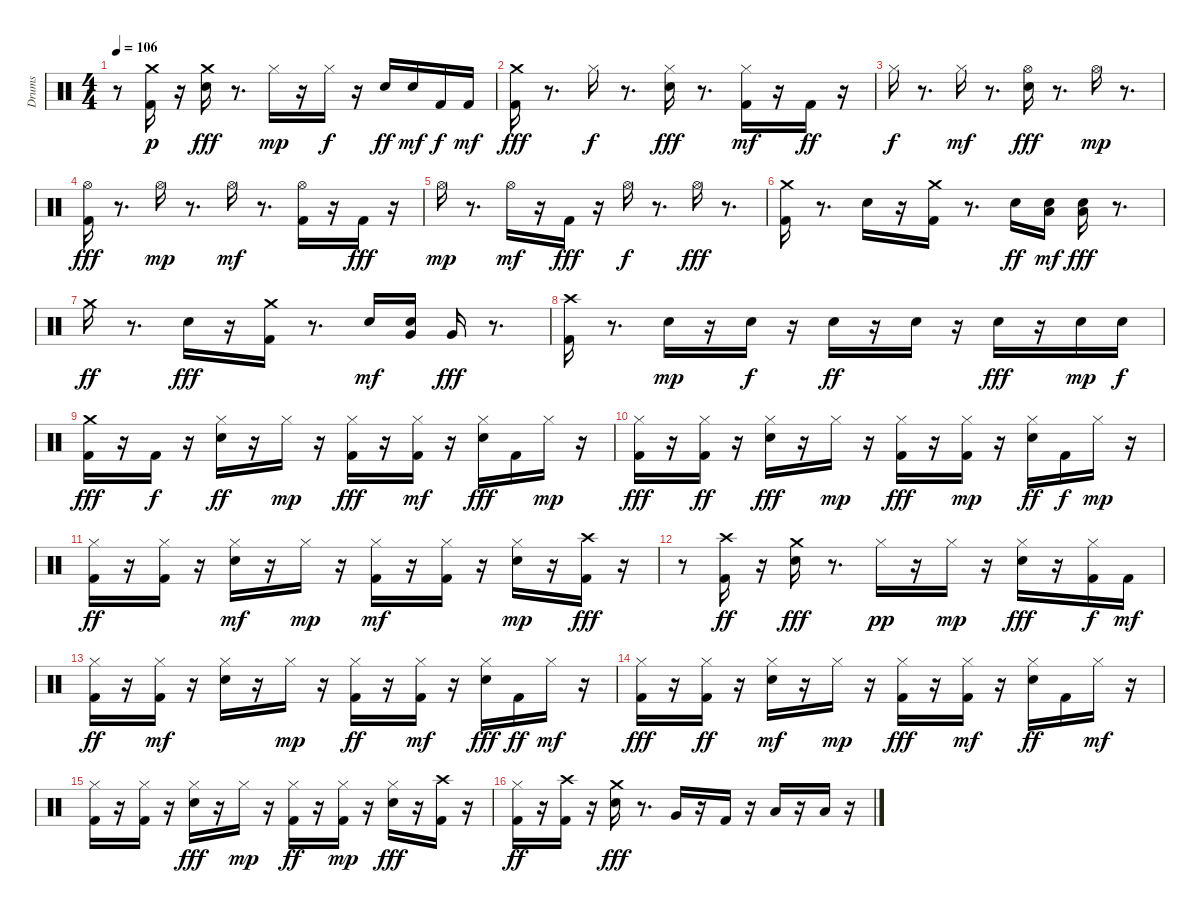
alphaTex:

\track ("Drums" "Drums") {instrument percussion}
\staff {score}
\articulation defaults
\ts (4 4)
\tempo 106
\clef neutral
\ks c
r.8{dy ff} ("Kick (hit) 2" "Crash medium (hit)").16{dy p} r.16 ("Crash medium (hit)" "Snare (hit) 2").16{dy fff} r.8{d} "Hi-Hat (closed)".16{dy mp} r.16 "Hi-Hat (closed)".16{dy f} r.16 "Snare (hit) 2".16{dy ff} "Snare (hit) 2".16{dy mf} "Kick (hit) 2".16{dy f} "Kick (hit) 2".16{dy mf} |
("Crash medium (hit)" "Kick (hit) 2").16{dy fff} r.8{d} "Hi-Hat (closed)".16{dy f} r.8{d} ("Hi-Hat (closed)" "Snare (hit) 2").16{dy fff} r.8{d} ("Hi-Hat (closed)" "Kick (hit) 2").16{dy mf} r.16 "Kick (hit) 2".16{dy ff} r.16 |
"Hi-Hat (closed)".16{dy f} r.8{d} "Hi-Hat (closed)".16{dy mf} r.8{d} ("Hi-Hat (open)" "Snare (hit) 2").16{dy fff} r.8{d} "Hi-Hat (open)".16{dy mp} r.8{d} |
("Hi-Hat (open)" "Kick (hit) 2").16{dy fff} r.8{d} "Hi-Hat (open)".16{dy mp} r.8{d} "Hi-Hat (open)".16{dy mf} r.8{d} ("Hi-Hat (open)" "Kick (hit) 2").16 r.16 "Kick (hit) 2".16{dy fff} r.16 |
"Hi-Hat (open)".16{dy mp} r.8{d} "Hi-Hat (open)".16{dy mf} r.16 "Kick (hit) 2".16{dy fff} r.16 "Hi-Hat (open)".16{dy f} r.8{d} "Hi-Hat (open)".16{dy fff} r.8{d} |
("Crash medium (hit)" "Kick (hit) 2").16 r.8{d} "Snare (hit) 2".16 r.16 ("Crash medium (hit)" "Kick (hit) 2").16 r.8{d} "Snare (hit) 2".16{dy ff} ("Snare (hit) 2" "Low Floor Tom (hit)").16{dy mf} ("Snare (hit) 2" "Low Floor Tom (hit)").16{dy fff} r.8{d} |
"Crash medium (hit)".16{dy ff} r.8{d} "Snare (hit) 2".16{dy fff} r.16 ("Crash medium (hit)" "Kick (hit) 2").16 r.8{d} "Snare (hit) 2".16{dy mf} ("Snare (hit) 2" "Very Low Tom (hit)").16 "Very Low Tom (hit)".16{dy fff} r.8{d} |
("Crash high (hit)" "Kick (hit) 2").16 r.8{d} "Snare (hit) 2".16{dy mp} r.16 "Snare (hit) 2".16{dy f} r.16 "Snare (hit) 2".16{dy ff} r.16 "Snare (hit) 2".16 r.16 "Snare (hit) 2".16{dy fff} r.16 "Snare (hit) 2".16{dy mp} "Snare (hit) 2".16{dy f} |
("Crash medium (hit)" "Kick (hit) 2").16{dy fff} r.16 "Kick (hit) 2".16{dy f} r.16 ("Hi-Hat (closed)" "Snare (hit) 2").16{dy ff} r.16 "Hi-Hat (closed)".16{dy mp} r.16 ("Hi-Hat (closed)" "Kick (hit) 2").16{dy fff} r.16 ("Hi-Hat (closed)" "Kick (hit) 2").16{dy mf} r.16 ("Hi-Hat (closed)" "Snare (hit) 2").16{dy fff} "Kick (hit) 2".16 "Hi-Hat (closed)".16{dy mp} r.16 |
("Hi-Hat (closed)" "Kick (hit) 2").16{dy fff} r.16 ("Hi-Hat (closed)" "Kick (hit) 2").16{dy ff} r.16 ("Hi-Hat (closed)" "Snare (hit) 2").16{dy fff} r.16 "Hi-Hat (closed)".16{dy mp} r.16 ("Hi-Hat (closed)" "Kick (hit) 2").16{dy fff} r.16 ("Kick (hit) 2" "Hi-Hat (closed)").16{dy mp} r.16 ("Hi-Hat (closed)" "Snare (hit) 2").16{dy ff} "Kick (hit) 2".16{dy f} "Hi-Hat (closed)".16{dy mp} r.16 |
("Hi-Hat (closed)" "Kick (hit) 2").16{dy ff} r.16 ("Hi-Hat (closed)" "Kick (hit) 2").16 r.16 ("Snare (hit) 2" "Hi-Hat (closed)").16{dy mf} r.16 "Hi-Hat (closed)".16{dy mp} r.16 ("Kick (hit) 2" "Hi-Hat (closed)").16{dy mf} r.16 ("Kick (hit) 2" "Hi-Hat (closed)").16 r.16 ("Snare (hit) 2" "Hi-Hat (closed)").16{dy mp} r.16 ("Crash high (hit)" "Kick (hit) 2").16{dy fff} r.16 |
r.8 ("Crash high (hit)" "Kick (hit) 2").16{dy ff} r.16 ("Crash medium (hit)" "Snare (hit) 2").16{dy fff} r.8{d} "Hi-Hat (closed)".16{dy pp} r.16 "Hi-Hat (closed)".16{dy mp} r.16 ("Hi-Hat (closed)" "Snare (hit) 2").16{dy fff} r.16 ("Kick (hit) 2" "Hi-Hat (closed)").16{dy f} "Kick (hit) 2".16{dy mf} |
("Kick (hit) 2" "Hi-Hat (closed)").16{dy ff} r.16 ("Kick (hit) 2" "Hi-Hat (closed)").16{dy mf} r.16 ("Snare (hit) 2" "Hi-Hat (closed)").16 r.16 "Hi-Hat (closed)".16{dy mp} r.16 ("Hi-Hat (closed)" "Kick (hit) 2").16{dy ff} r.16 ("Hi-Hat (closed)" "Kick (hit) 2").16{dy mf} r.16 ("Snare (hit) 2" "Hi-Hat (closed)").16{dy fff} "Kick (hit) 2".16{dy ff} "Hi-Hat (closed)".16{dy mf} r.16 |
("Hi-Hat (closed)" "Kick (hit) 2").16{dy fff} r.16 ("Hi-Hat (closed)" "Kick (hit) 2").16{dy ff} r.16 ("Snare (hit) 2" "Hi-Hat (closed)").16{dy mf} r.16 "Hi-Hat (closed)".16{dy mp} r.16 ("Kick (hit) 2" "Hi-Hat (closed)").16{dy fff} r.16 ("Kick (hit) 2" "Hi-Hat (closed)").16{dy mf} r.16 ("Snare (hit) 2" "Hi-Hat (closed)").16{dy ff} "Kick (hit) 2".16 "Hi-Hat (closed)".16{dy mf} r.16 |
("Kick (hit) 2" "Hi-Hat (closed)").16 r.16 ("Kick (hit) 2" "Hi-Hat (closed)").16 r.16 ("Snare (hit) 2" "Hi-Hat (closed)").16{dy fff} r.16 "Hi-Hat (closed)".16{dy mp} r.16 ("Kick (hit) 2" "Hi-Hat (closed)").16{dy ff} r.16 ("Hi-Hat (closed)" "Kick (hit) 2").16{dy mp} r.16 ("Snare (hit) 2" "Hi-Hat (closed)").16{dy fff} r.16 ("Crash high (hit)" "Kick (hit) 2").16 r.16 |
("Kick (hit) 2" "Hi-Hat (closed)").16{dy ff} r.16 ("Crash high (hit)" "Kick (hit) 2").16 r.16 ("Snare (hit) 2" "Crash medium (hit)").16{dy fff} r.8{d} "Very Low Tom (hit)".16 r.16 "Kick (hit) 2".16 r.16 "Low Tom (hit)".16 r.16 "Low Floor Tom (hit)".16 r.16
